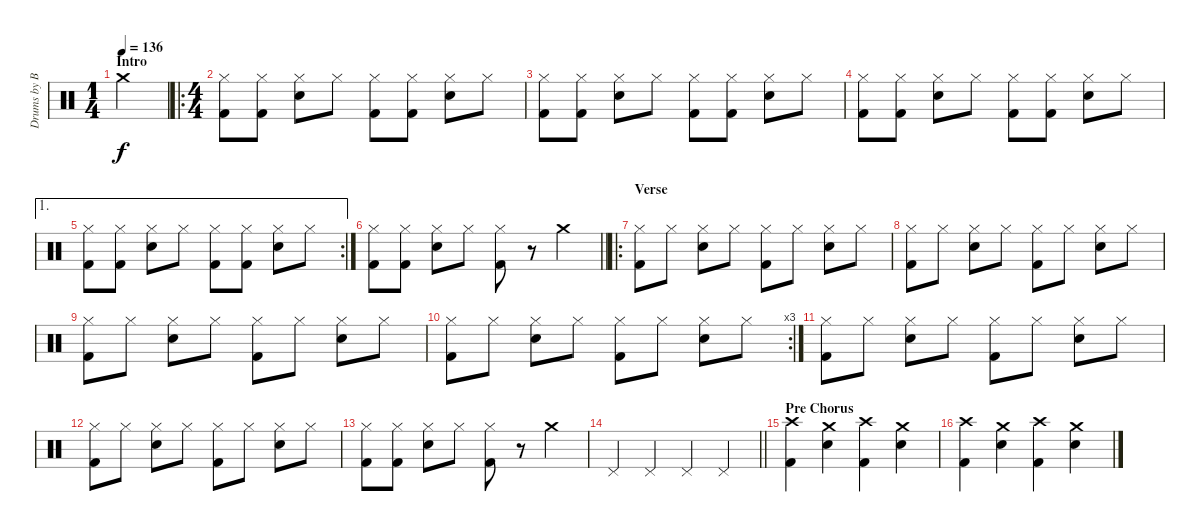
\track ("Drums by Blackgk" "Drums by B") {instrument percussion}
\staff {score}
\articulation defaults
\ts (1 4)
\section ("" "Intro")
\tempo 136
\clef neutral
\ks c "Crash medium (hit)".4{dy f}
|
\ro
\ts (4 4)
("Hi-Hat (closed)" "Kick (hit) 2").8 ("Hi-Hat (closed)" "Kick (hit) 2").8 ("Snare (hit) 2" "Hi-Hat (closed)").8 "Hi-Hat (closed)".8 ("Hi-Hat (closed)" "Kick (hit) 2").8 ("Hi-Hat (closed)" "Kick (hit) 2").8 ("Snare (hit) 2" "Hi-Hat (closed)").8 "Hi-Hat (closed)".8 |
("Hi-Hat (closed)" "Kick (hit) 2").8 ("Hi-Hat (closed)" "Kick (hit) 2").8 ("Snare (hit) 2" "Hi-Hat (closed)").8 "Hi-Hat (closed)".8 ("Hi-Hat (closed)" "Kick (hit) 2").8 ("Hi-Hat (closed)" "Kick (hit) 2").8 ("Snare (hit) 2" "Hi-Hat (closed)").8 "Hi-Hat (closed)".8 |
("Hi-Hat (closed)" "Kick (hit) 2").8 ("Hi-Hat (closed)" "Kick (hit) 2").8 ("Snare (hit) 2" "Hi-Hat (closed)").8 "Hi-Hat (closed)".8 ("Hi-Hat (closed)" "Kick (hit) 2").8 ("Hi-Hat (closed)" "Kick (hit) 2").8 ("Snare (hit) 2" "Hi-Hat (closed)").8 "Hi-Hat (closed)".8 |
\ae 1
\rc 2
("Hi-Hat (closed)" "Kick (hit) 2").8 ("Hi-Hat (closed)" "Kick (hit) 2").8 ("Snare (hit) 2" "Hi-Hat (closed)").8 "Hi-Hat (closed)".8 ("Hi-Hat (closed)" "Kick (hit) 2").8 ("Hi-Hat (closed)" "Kick (hit) 2").8 ("Snare (hit) 2" "Hi-Hat (closed)").8 "Hi-Hat (closed)".8 |
\barLineRight lightlight
("Hi-Hat (closed)" "Kick (hit) 2").8 ("Hi-Hat (closed)" "Kick (hit) 2").8 ("Snare (hit) 2" "Hi-Hat (closed)").8 "Hi-Hat (closed)".8 ("Hi-Hat (closed)" "Kick (hit) 2").8 r.8 "Crash medium (hit)".4 |
\ro
\section ("" "Verse")
("Hi-Hat (closed)" "Kick (hit) 2").8 "Hi-Hat (closed)".8 ("Snare (hit) 2" "Hi-Hat (closed)").8 "Hi-Hat (closed)".8 ("Hi-Hat (closed)" "Kick (hit) 2").8 "Hi-Hat (closed)".8 ("Snare (hit) 2" "Hi-Hat (closed)").8 "Hi-Hat (closed)".8 |
("Hi-Hat (closed)" "Kick (hit) 2").8 "Hi-Hat (closed)".8 ("Snare (hit) 2" "Hi-Hat (closed)").8 "Hi-Hat (closed)".8 ("Hi-Hat (closed)" "Kick (hit) 2").8 "Hi-Hat (closed)".8 ("Snare (hit) 2" "Hi-Hat (closed)").8 "Hi-Hat (closed)".8 |
("Hi-Hat (closed)" "Kick (hit) 2").8 "Hi-Hat (closed)".8 ("Snare (hit) 2" "Hi-Hat (closed)").8 "Hi-Hat (closed)".8 ("Hi-Hat (closed)" "Kick (hit) 2").8 "Hi-Hat (closed)".8 ("Snare (hit) 2" "Hi-Hat (closed)").8 "Hi-Hat (closed)".8 |
\rc 3
("Hi-Hat (closed)" "Kick (hit) 2").8 "Hi-Hat (closed)".8 ("Snare (hit) 2" "Hi-Hat (closed)").8 "Hi-Hat (closed)".8 ("Hi-Hat (closed)" "Kick (hit) 2").8 "Hi-Hat (closed)".8 ("Snare (hit) 2" "Hi-Hat (closed)").8 "Hi-Hat (closed)".8 |
("Hi-Hat (closed)" "Kick (hit) 2").8 "Hi-Hat (closed)".8 ("Snare (hit) 2" "Hi-Hat (closed)").8 "Hi-Hat (closed)".8 ("Hi-Hat (closed)" "Kick (hit) 2").8 "Hi-Hat (closed)".8 ("Snare (hit) 2" "Hi-Hat (closed)").8 "Hi-Hat (closed)".8 |
("Hi-Hat (closed)" "Kick (hit) 2").8 "Hi-Hat (closed)".8 ("Snare (hit) 2" "Hi-Hat (closed)").8 "Hi-Hat (closed)".8 ("Hi-Hat (closed)" "Kick (hit) 2").8 "Hi-Hat (closed)".8 ("Snare (hit) 2" "Hi-Hat (closed)").8 "Hi-Hat (closed)".8 |
("Hi-Hat (closed)" "Kick (hit) 2").8 ("Hi-Hat (closed)" "Kick (hit) 2").8 ("Snare (hit) 2" "Hi-Hat (closed)").8 "Hi-Hat (closed)".8 ("Hi-Hat (closed)" "Kick (hit) 2").8 r.8 "Crash medium (hit)".4 |
\barLineRight lightlight "Pedal Hi-Hat (hit)".4 "Pedal Hi-Hat (hit)".4 "Pedal Hi-Hat (hit)".4 "Pedal Hi-Hat (hit)".4
|
\section ("" "Pre Chorus")
("Crash high (hit)" "Kick (hit) 2").4 ("Crash medium (hit)" "Snare (hit) 2").4 ("Crash high (hit)" "Kick (hit) 2").4 ("Crash medium (hit)" "Snare (hit) 2").4 |
("Crash high (hit)" "Kick (hit) 2").4 ("Crash medium (hit)" "Snare (hit) 2").4 ("Crash high (hit)" "Kick (hit) 2").4 ("Crash medium (hit)" "Snare (hit) 2").4
